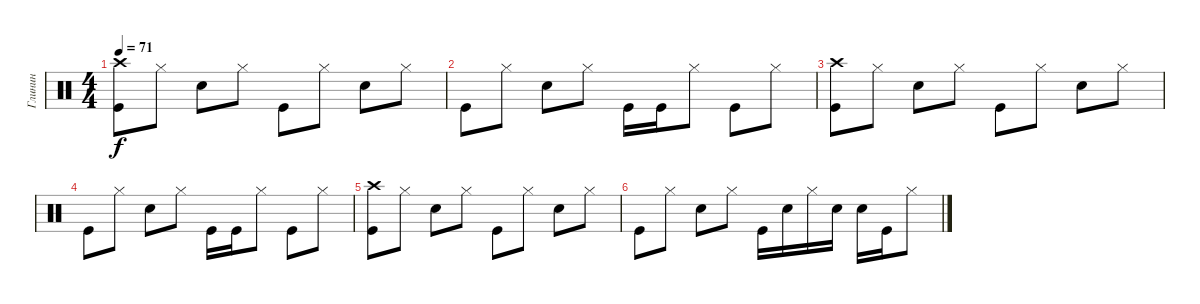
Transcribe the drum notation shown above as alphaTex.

\track ("Глинин" "Глинин") {instrument percussion}
\staff {score}
\articulation defaults
\ts (4 4)
\tempo 71
\clef neutral
\ks c
("Kick (hit)" "Crash high (hit)").8{dy f} "Hi-Hat (closed)".8 "Snare (hit) 2".8 "Hi-Hat (closed)".8 "Kick (hit)".8 "Hi-Hat (closed)".8 "Snare (hit) 2".8 "Hi-Hat (closed)".8 |
"Kick (hit)".8 "Hi-Hat (closed)".8 "Snare (hit) 2".8 "Hi-Hat (closed)".8 "Kick (hit)".16 "Kick (hit)".16 "Hi-Hat (closed)".8 "Kick (hit)".8 "Hi-Hat (closed)".8 |
("Kick (hit)" "Crash high (hit)").8 "Hi-Hat (closed)".8 "Snare (hit) 2".8 "Hi-Hat (closed)".8 "Kick (hit)".8 "Hi-Hat (closed)".8 "Snare (hit) 2".8 "Hi-Hat (closed)".8 |
"Kick (hit)".8 "Hi-Hat (closed)".8 "Snare (hit) 2".8 "Hi-Hat (closed)".8 "Kick (hit)".16 "Kick (hit)".16 "Hi-Hat (closed)".8 "Kick (hit)".8 "Hi-Hat (closed)".8 |
("Kick (hit)" "Crash high (hit)").8 "Hi-Hat (closed)".8 "Snare (hit) 2".8 "Hi-Hat (closed)".8 "Kick (hit)".8 "Hi-Hat (closed)".8 "Snare (hit) 2".8 "Hi-Hat (closed)".8 |
"Kick (hit)".8 "Hi-Hat (closed)".8 "Snare (hit) 2".8 "Hi-Hat (closed)".8 "Kick (hit)".16 "Snare (hit) 2".16 "Hi-Hat (closed)".16 "Snare (hit) 2".16 "Snare (hit) 2".16 "Kick (hit)".16 "Hi-Hat (closed)".8
